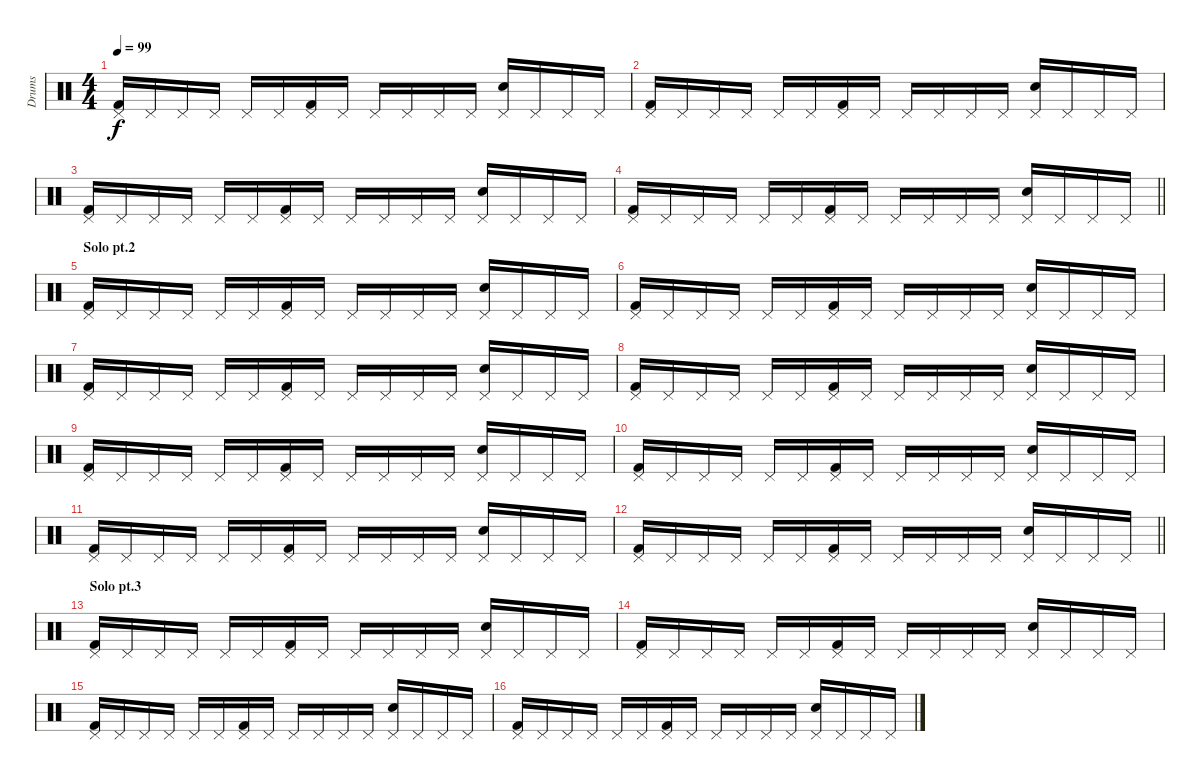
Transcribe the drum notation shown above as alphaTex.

\track ("Drums" "Drums") {instrument percussion}
\staff {score}
\articulation defaults
\ts (4 4)
\tempo 99
\clef neutral
\ks c
("Pedal Hi-Hat (hit)" "Kick (hit) 2").16{dy f} "Pedal Hi-Hat (hit)".16 "Pedal Hi-Hat (hit)".16 "Pedal Hi-Hat (hit)".16 "Pedal Hi-Hat (hit)".16 "Pedal Hi-Hat (hit)".16 ("Pedal Hi-Hat (hit)" "Kick (hit) 2").16 "Pedal Hi-Hat (hit)".16 "Pedal Hi-Hat (hit)".16 "Pedal Hi-Hat (hit)".16 "Pedal Hi-Hat (hit)".16 "Pedal Hi-Hat (hit)".16 ("Pedal Hi-Hat (hit)" "Snare (hit) 2").16 "Pedal Hi-Hat (hit)".16 "Pedal Hi-Hat (hit)".16 "Pedal Hi-Hat (hit)".16 |
("Pedal Hi-Hat (hit)" "Kick (hit) 2").16 "Pedal Hi-Hat (hit)".16 "Pedal Hi-Hat (hit)".16 "Pedal Hi-Hat (hit)".16 "Pedal Hi-Hat (hit)".16 "Pedal Hi-Hat (hit)".16 ("Pedal Hi-Hat (hit)" "Kick (hit) 2").16 "Pedal Hi-Hat (hit)".16 "Pedal Hi-Hat (hit)".16 "Pedal Hi-Hat (hit)".16 "Pedal Hi-Hat (hit)".16 "Pedal Hi-Hat (hit)".16 ("Pedal Hi-Hat (hit)" "Snare (hit) 2").16 "Pedal Hi-Hat (hit)".16 "Pedal Hi-Hat (hit)".16 "Pedal Hi-Hat (hit)".16 |
("Pedal Hi-Hat (hit)" "Kick (hit) 2").16 "Pedal Hi-Hat (hit)".16 "Pedal Hi-Hat (hit)".16 "Pedal Hi-Hat (hit)".16 "Pedal Hi-Hat (hit)".16 "Pedal Hi-Hat (hit)".16 ("Pedal Hi-Hat (hit)" "Kick (hit) 2").16 "Pedal Hi-Hat (hit)".16 "Pedal Hi-Hat (hit)".16 "Pedal Hi-Hat (hit)".16 "Pedal Hi-Hat (hit)".16 "Pedal Hi-Hat (hit)".16 ("Pedal Hi-Hat (hit)" "Snare (hit) 2").16 "Pedal Hi-Hat (hit)".16 "Pedal Hi-Hat (hit)".16 "Pedal Hi-Hat (hit)".16 |
\barLineRight lightlight
("Pedal Hi-Hat (hit)" "Kick (hit) 2").16 "Pedal Hi-Hat (hit)".16 "Pedal Hi-Hat (hit)".16 "Pedal Hi-Hat (hit)".16 "Pedal Hi-Hat (hit)".16 "Pedal Hi-Hat (hit)".16 ("Pedal Hi-Hat (hit)" "Kick (hit) 2").16 "Pedal Hi-Hat (hit)".16 "Pedal Hi-Hat (hit)".16 "Pedal Hi-Hat (hit)".16 "Pedal Hi-Hat (hit)".16 "Pedal Hi-Hat (hit)".16 ("Pedal Hi-Hat (hit)" "Snare (hit) 2").16 "Pedal Hi-Hat (hit)".16 "Pedal Hi-Hat (hit)".16 "Pedal Hi-Hat (hit)".16 |
\section ("" "Solo pt.2")
("Pedal Hi-Hat (hit)" "Kick (hit) 2").16 "Pedal Hi-Hat (hit)".16 "Pedal Hi-Hat (hit)".16 "Pedal Hi-Hat (hit)".16 "Pedal Hi-Hat (hit)".16 "Pedal Hi-Hat (hit)".16 ("Pedal Hi-Hat (hit)" "Kick (hit) 2").16 "Pedal Hi-Hat (hit)".16 "Pedal Hi-Hat (hit)".16 "Pedal Hi-Hat (hit)".16 "Pedal Hi-Hat (hit)".16 "Pedal Hi-Hat (hit)".16 ("Pedal Hi-Hat (hit)" "Snare (hit) 2").16 "Pedal Hi-Hat (hit)".16 "Pedal Hi-Hat (hit)".16 "Pedal Hi-Hat (hit)".16 |
("Pedal Hi-Hat (hit)" "Kick (hit) 2").16 "Pedal Hi-Hat (hit)".16 "Pedal Hi-Hat (hit)".16 "Pedal Hi-Hat (hit)".16 "Pedal Hi-Hat (hit)".16 "Pedal Hi-Hat (hit)".16 ("Pedal Hi-Hat (hit)" "Kick (hit) 2").16 "Pedal Hi-Hat (hit)".16 "Pedal Hi-Hat (hit)".16 "Pedal Hi-Hat (hit)".16 "Pedal Hi-Hat (hit)".16 "Pedal Hi-Hat (hit)".16 ("Pedal Hi-Hat (hit)" "Snare (hit) 2").16 "Pedal Hi-Hat (hit)".16 "Pedal Hi-Hat (hit)".16 "Pedal Hi-Hat (hit)".16 |
("Pedal Hi-Hat (hit)" "Kick (hit) 2").16 "Pedal Hi-Hat (hit)".16 "Pedal Hi-Hat (hit)".16 "Pedal Hi-Hat (hit)".16 "Pedal Hi-Hat (hit)".16 "Pedal Hi-Hat (hit)".16 ("Pedal Hi-Hat (hit)" "Kick (hit) 2").16 "Pedal Hi-Hat (hit)".16 "Pedal Hi-Hat (hit)".16 "Pedal Hi-Hat (hit)".16 "Pedal Hi-Hat (hit)".16 "Pedal Hi-Hat (hit)".16 ("Pedal Hi-Hat (hit)" "Snare (hit) 2").16 "Pedal Hi-Hat (hit)".16 "Pedal Hi-Hat (hit)".16 "Pedal Hi-Hat (hit)".16 |
("Pedal Hi-Hat (hit)" "Kick (hit) 2").16 "Pedal Hi-Hat (hit)".16 "Pedal Hi-Hat (hit)".16 "Pedal Hi-Hat (hit)".16 "Pedal Hi-Hat (hit)".16 "Pedal Hi-Hat (hit)".16 ("Pedal Hi-Hat (hit)" "Kick (hit) 2").16 "Pedal Hi-Hat (hit)".16 "Pedal Hi-Hat (hit)".16 "Pedal Hi-Hat (hit)".16 "Pedal Hi-Hat (hit)".16 "Pedal Hi-Hat (hit)".16 ("Pedal Hi-Hat (hit)" "Snare (hit) 2").16 "Pedal Hi-Hat (hit)".16 "Pedal Hi-Hat (hit)".16 "Pedal Hi-Hat (hit)".16 |
("Pedal Hi-Hat (hit)" "Kick (hit) 2").16 "Pedal Hi-Hat (hit)".16 "Pedal Hi-Hat (hit)".16 "Pedal Hi-Hat (hit)".16 "Pedal Hi-Hat (hit)".16 "Pedal Hi-Hat (hit)".16 ("Pedal Hi-Hat (hit)" "Kick (hit) 2").16 "Pedal Hi-Hat (hit)".16 "Pedal Hi-Hat (hit)".16 "Pedal Hi-Hat (hit)".16 "Pedal Hi-Hat (hit)".16 "Pedal Hi-Hat (hit)".16 ("Pedal Hi-Hat (hit)" "Snare (hit) 2").16 "Pedal Hi-Hat (hit)".16 "Pedal Hi-Hat (hit)".16 "Pedal Hi-Hat (hit)".16 |
("Pedal Hi-Hat (hit)" "Kick (hit) 2").16 "Pedal Hi-Hat (hit)".16 "Pedal Hi-Hat (hit)".16 "Pedal Hi-Hat (hit)".16 "Pedal Hi-Hat (hit)".16 "Pedal Hi-Hat (hit)".16 ("Pedal Hi-Hat (hit)" "Kick (hit) 2").16 "Pedal Hi-Hat (hit)".16 "Pedal Hi-Hat (hit)".16 "Pedal Hi-Hat (hit)".16 "Pedal Hi-Hat (hit)".16 "Pedal Hi-Hat (hit)".16 ("Pedal Hi-Hat (hit)" "Snare (hit) 2").16 "Pedal Hi-Hat (hit)".16 "Pedal Hi-Hat (hit)".16 "Pedal Hi-Hat (hit)".16 |
("Pedal Hi-Hat (hit)" "Kick (hit) 2").16 "Pedal Hi-Hat (hit)".16 "Pedal Hi-Hat (hit)".16 "Pedal Hi-Hat (hit)".16 "Pedal Hi-Hat (hit)".16 "Pedal Hi-Hat (hit)".16 ("Pedal Hi-Hat (hit)" "Kick (hit) 2").16 "Pedal Hi-Hat (hit)".16 "Pedal Hi-Hat (hit)".16 "Pedal Hi-Hat (hit)".16 "Pedal Hi-Hat (hit)".16 "Pedal Hi-Hat (hit)".16 ("Pedal Hi-Hat (hit)" "Snare (hit) 2").16 "Pedal Hi-Hat (hit)".16 "Pedal Hi-Hat (hit)".16 "Pedal Hi-Hat (hit)".16 |
\barLineRight lightlight
("Pedal Hi-Hat (hit)" "Kick (hit) 2").16 "Pedal Hi-Hat (hit)".16 "Pedal Hi-Hat (hit)".16 "Pedal Hi-Hat (hit)".16 "Pedal Hi-Hat (hit)".16 "Pedal Hi-Hat (hit)".16 ("Pedal Hi-Hat (hit)" "Kick (hit) 2").16 "Pedal Hi-Hat (hit)".16 "Pedal Hi-Hat (hit)".16 "Pedal Hi-Hat (hit)".16 "Pedal Hi-Hat (hit)".16 "Pedal Hi-Hat (hit)".16 ("Pedal Hi-Hat (hit)" "Snare (hit) 2").16 "Pedal Hi-Hat (hit)".16 "Pedal Hi-Hat (hit)".16 "Pedal Hi-Hat (hit)".16 |
\section ("" "Solo pt.3")
("Pedal Hi-Hat (hit)" "Kick (hit) 2").16 "Pedal Hi-Hat (hit)".16 "Pedal Hi-Hat (hit)".16 "Pedal Hi-Hat (hit)".16 "Pedal Hi-Hat (hit)".16 "Pedal Hi-Hat (hit)".16 ("Pedal Hi-Hat (hit)" "Kick (hit) 2").16 "Pedal Hi-Hat (hit)".16 "Pedal Hi-Hat (hit)".16 "Pedal Hi-Hat (hit)".16 "Pedal Hi-Hat (hit)".16 "Pedal Hi-Hat (hit)".16 ("Pedal Hi-Hat (hit)" "Snare (hit) 2").16 "Pedal Hi-Hat (hit)".16 "Pedal Hi-Hat (hit)".16 "Pedal Hi-Hat (hit)".16 |
("Pedal Hi-Hat (hit)" "Kick (hit) 2").16 "Pedal Hi-Hat (hit)".16 "Pedal Hi-Hat (hit)".16 "Pedal Hi-Hat (hit)".16 "Pedal Hi-Hat (hit)".16 "Pedal Hi-Hat (hit)".16 ("Pedal Hi-Hat (hit)" "Kick (hit) 2").16 "Pedal Hi-Hat (hit)".16 "Pedal Hi-Hat (hit)".16 "Pedal Hi-Hat (hit)".16 "Pedal Hi-Hat (hit)".16 "Pedal Hi-Hat (hit)".16 ("Pedal Hi-Hat (hit)" "Snare (hit) 2").16 "Pedal Hi-Hat (hit)".16 "Pedal Hi-Hat (hit)".16 "Pedal Hi-Hat (hit)".16 |
("Pedal Hi-Hat (hit)" "Kick (hit) 2").16 "Pedal Hi-Hat (hit)".16 "Pedal Hi-Hat (hit)".16 "Pedal Hi-Hat (hit)".16 "Pedal Hi-Hat (hit)".16 "Pedal Hi-Hat (hit)".16 ("Pedal Hi-Hat (hit)" "Kick (hit) 2").16 "Pedal Hi-Hat (hit)".16 "Pedal Hi-Hat (hit)".16 "Pedal Hi-Hat (hit)".16 "Pedal Hi-Hat (hit)".16 "Pedal Hi-Hat (hit)".16 ("Pedal Hi-Hat (hit)" "Snare (hit) 2").16 "Pedal Hi-Hat (hit)".16 "Pedal Hi-Hat (hit)".16 "Pedal Hi-Hat (hit)".16 |
("Pedal Hi-Hat (hit)" "Kick (hit) 2").16 "Pedal Hi-Hat (hit)".16 "Pedal Hi-Hat (hit)".16 "Pedal Hi-Hat (hit)".16 "Pedal Hi-Hat (hit)".16 "Pedal Hi-Hat (hit)".16 ("Pedal Hi-Hat (hit)" "Kick (hit) 2").16 "Pedal Hi-Hat (hit)".16 "Pedal Hi-Hat (hit)".16 "Pedal Hi-Hat (hit)".16 "Pedal Hi-Hat (hit)".16 "Pedal Hi-Hat (hit)".16 ("Pedal Hi-Hat (hit)" "Snare (hit) 2").16 "Pedal Hi-Hat (hit)".16 "Pedal Hi-Hat (hit)".16 "Pedal Hi-Hat (hit)".16
